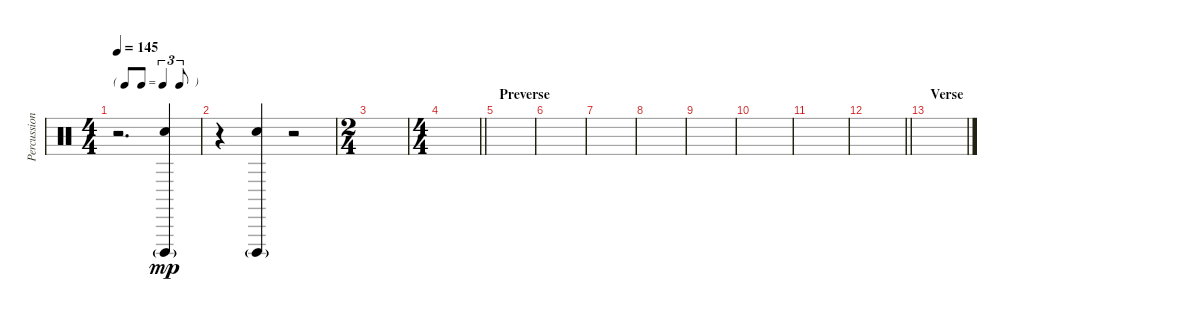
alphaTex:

\track ("Percussion" "Percussion") {instrument percussion}
\staff {score}
\articulation defaults
\ts (4 4)
\tf triplet8th
\tempo 145
\clef neutral
\ks c
r.2{d dy mp} ("Cuica (open)"{g} "Hand Clap (hit)").4 |
r.4 ("Cuica (open)"{g} "Hand Clap (hit)").4 r.2 |
\ts (2 4)
|
\ts (4 4)
\barLineRight lightlight
|
\section ("" "Preverse")
|
|
|
|
|
|
|
\barLineRight lightlight
|
\section ("" "Verse")
